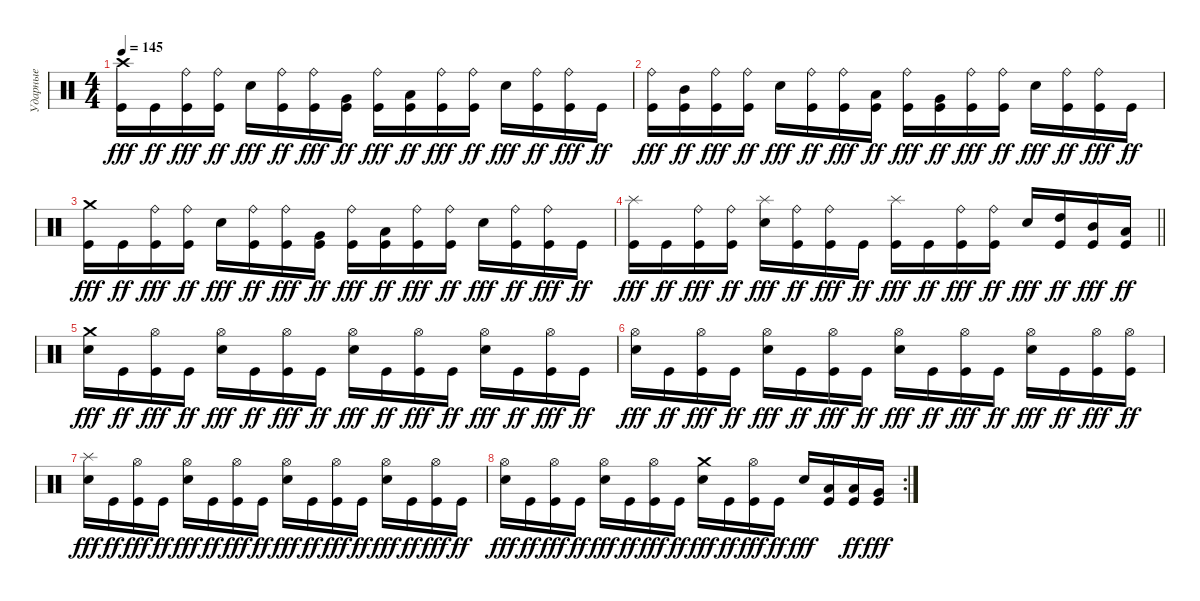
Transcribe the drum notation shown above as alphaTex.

\track ("Ударные" "Ударные") {instrument percussion}
\staff {score}
\articulation defaults
\ts (4 4)
\tempo 145
\clef neutral
\ks c
("Crash high (hit)" "Kick (hit)").16{dy fff} "Kick (hit)".16{dy ff} ("Ride (bell)" "Kick (hit)").16{dy fff} ("Ride (bell)" "Kick (hit)").16{dy ff} "Electric Snare (hit)".16{dy fff} ("Ride (bell)" "Kick (hit)").16{dy ff} ("Ride (bell)" "Kick (hit)").16{dy fff} ("Very Low Tom (hit)" "Kick (hit)").16{dy ff} ("Ride (bell)" "Kick (hit)").16{dy fff} ("Low Tom (hit)" "Kick (hit)").16{dy ff} ("Ride (bell)" "Kick (hit)").16{dy fff} ("Ride (bell)" "Kick (hit)").16{dy ff} "Electric Snare (hit)".16{dy fff} ("Ride (bell)" "Kick (hit)").16{dy ff} ("Ride (bell)" "Kick (hit)").16{dy fff} "Kick (hit)".16{dy ff} |
("Ride (bell)" "Kick (hit)").16{dy fff} ("Mid Tom (hit)" "Kick (hit)").16{dy ff} ("Ride (bell)" "Kick (hit)").16{dy fff} ("Ride (bell)" "Kick (hit)").16{dy ff} "Electric Snare (hit)".16{dy fff} ("Ride (bell)" "Kick (hit)").16{dy ff} ("Ride (bell)" "Kick (hit)").16{dy fff} ("Low Floor Tom (hit)" "Kick (hit)").16{dy ff} ("Ride (bell)" "Kick (hit)").16{dy fff} ("Very Low Tom (hit)" "Kick (hit)").16{dy ff} ("Ride (bell)" "Kick (hit)").16{dy fff} ("Ride (bell)" "Kick (hit)").16{dy ff} "Electric Snare (hit)".16{dy fff} ("Ride (bell)" "Kick (hit)").16{dy ff} ("Ride (bell)" "Kick (hit)").16{dy fff} "Kick (hit)".16{dy ff} |
("Crash medium (hit)" "Kick (hit)").16{dy fff} "Kick (hit)".16{dy ff} ("Ride (bell)" "Kick (hit)").16{dy fff} ("Ride (bell)" "Kick (hit)").16{dy ff} "Electric Snare (hit)".16{dy fff} ("Ride (bell)" "Kick (hit)").16{dy ff} ("Ride (bell)" "Kick (hit)").16{dy fff} ("Very Low Tom (hit)" "Kick (hit)").16{dy ff} ("Ride (bell)" "Kick (hit)").16{dy fff} ("Low Tom (hit)" "Kick (hit)").16{dy ff} ("Ride (bell)" "Kick (hit)").16{dy fff} ("Ride (bell)" "Kick (hit)").16{dy ff} "Electric Snare (hit)".16{dy fff} ("Ride (bell)" "Kick (hit)").16{dy ff} ("Ride (bell)" "Kick (hit)").16{dy fff} "Kick (hit)".16{dy ff} |
\barLineRight lightlight
("Splash (hit)" "Kick (hit)").16{dy fff} "Kick (hit)".16{dy ff} ("Ride (bell)" "Kick (hit)").16{dy fff} ("Ride (bell)" "Kick (hit)").16{dy ff} ("Splash (hit)" "Electric Snare (hit)").16{dy fff} ("Ride (bell)" "Kick (hit)").16{dy ff} ("Ride (bell)" "Kick (hit)").16{dy fff} "Kick (hit)".16{dy ff} ("Splash (hit)" "Kick (hit)").16{dy fff} "Kick (hit)".16{dy ff} ("Ride (bell)" "Kick (hit)").16{dy fff} ("Ride (bell)" "Kick (hit)").16{dy ff} "Electric Snare (hit)".16{dy fff} ("High Tom (hit)" "Kick (hit)").16{dy ff} ("Mid Tom (hit)" "Kick (hit)").16{dy fff} ("Low Tom (hit)" "Kick (hit)").16{dy ff} |
("Crash medium (hit)" "Electric Snare (hit)").16{dy fff} "Kick (hit)".16{dy ff} ("Hi-Hat (open)" "Kick (hit)").16{dy fff} "Kick (hit)".16{dy ff} ("Hi-Hat (open)" "Electric Snare (hit)").16{dy fff} "Kick (hit)".16{dy ff} ("Hi-Hat (open)" "Kick (hit)").16{dy fff} "Kick (hit)".16{dy ff} ("Hi-Hat (open)" "Electric Snare (hit)").16{dy fff} "Kick (hit)".16{dy ff} ("Hi-Hat (open)" "Kick (hit)").16{dy fff} "Kick (hit)".16{dy ff} ("Hi-Hat (open)" "Electric Snare (hit)").16{dy fff} "Kick (hit)".16{dy ff} ("Hi-Hat (open)" "Kick (hit)").16{dy fff} "Kick (hit)".16{dy ff} |
("Hi-Hat (open)" "Electric Snare (hit)").16{dy fff} "Kick (hit)".16{dy ff} ("Hi-Hat (open)" "Kick (hit)").16{dy fff} "Kick (hit)".16{dy ff} ("Hi-Hat (open)" "Electric Snare (hit)").16{dy fff} "Kick (hit)".16{dy ff} ("Hi-Hat (open)" "Kick (hit)").16{dy fff} "Kick (hit)".16{dy ff} ("Hi-Hat (open)" "Electric Snare (hit)").16{dy fff} "Kick (hit)".16{dy ff} ("Hi-Hat (open)" "Kick (hit)").16{dy fff} "Kick (hit)".16{dy ff} ("Hi-Hat (open)" "Electric Snare (hit)").16{dy fff} "Kick (hit)".16{dy ff} ("Hi-Hat (open)" "Kick (hit)").16{dy fff} ("Hi-Hat (open)" "Kick (hit)").16{dy ff} |
("Splash (hit)" "Electric Snare (hit)").16{dy fff} "Kick (hit)".16{dy ff} ("Hi-Hat (open)" "Kick (hit)").16{dy fff} "Kick (hit)".16{dy ff} ("Hi-Hat (open)" "Electric Snare (hit)").16{dy fff} "Kick (hit)".16{dy ff} ("Hi-Hat (open)" "Kick (hit)").16{dy fff} "Kick (hit)".16{dy ff} ("Hi-Hat (open)" "Electric Snare (hit)").16{dy fff} "Kick (hit)".16{dy ff} ("Hi-Hat (open)" "Kick (hit)").16{dy fff} "Kick (hit)".16{dy ff} ("Hi-Hat (open)" "Electric Snare (hit)").16{dy fff} "Kick (hit)".16{dy ff} ("Hi-Hat (open)" "Kick (hit)").16{dy fff} "Kick (hit)".16{dy ff} |
\rc 2
("Hi-Hat (open)" "Electric Snare (hit)").16{dy fff} "Kick (hit)".16{dy ff} ("Hi-Hat (open)" "Kick (hit)").16{dy fff} "Kick (hit)".16{dy ff} ("Hi-Hat (open)" "Electric Snare (hit)").16{dy fff} "Kick (hit)".16{dy ff} ("Hi-Hat (open)" "Kick (hit)").16{dy fff} "Kick (hit)".16{dy ff} ("Crash medium (hit)" "Electric Snare (hit)").16{dy fff} "Kick (hit)".16{dy ff} ("Hi-Hat (open)" "Kick (hit)").16{dy fff} "Kick (hit)".16{dy ff} "Electric Snare (hit)".16{dy fff} ("Low Tom (hit)" "Kick (hit)").16 ("Low Tom (hit)" "Kick (hit)").16{dy ff} ("Very Low Tom (hit)" "Kick (hit)").16{dy fff}
